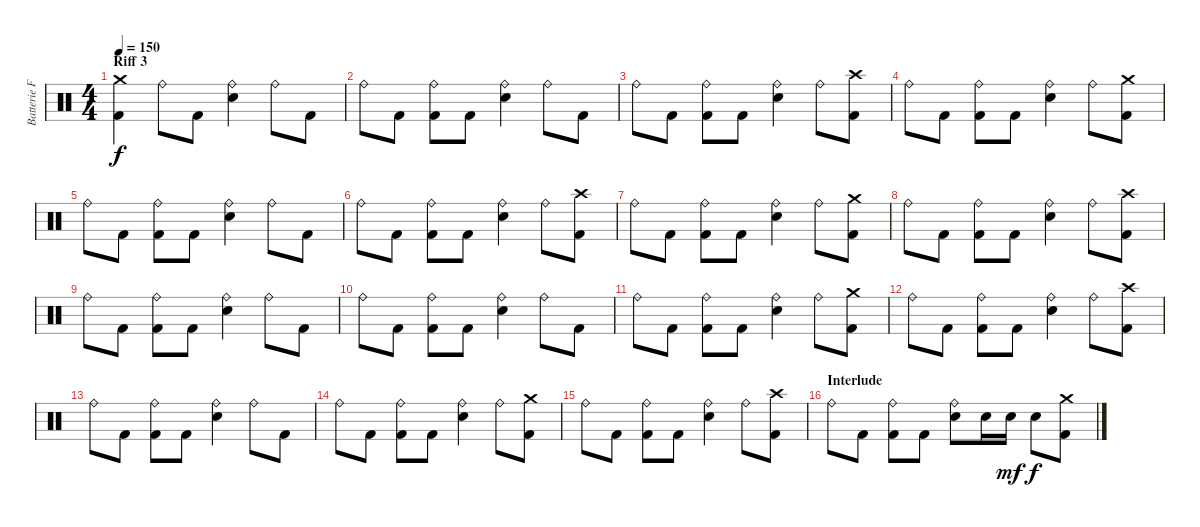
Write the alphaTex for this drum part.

\track ("Batterie Franck" "Batterie F") {instrument percussion}
\staff {score}
\articulation defaults
\ts (4 4)
\section ("" "Riff 3")
\tempo 150
\clef neutral
\ks c
("Crash medium (hit)" "Kick (hit) 2").4{dy f} "Ride (bell)".8 "Kick (hit) 2".8 ("Ride (bell)" "Snare (hit) 2").4 "Ride (bell)".8 "Kick (hit) 2".8 |
"Ride (bell)".8 "Kick (hit) 2".8 ("Ride (bell)" "Kick (hit) 2").8 "Kick (hit) 2".8 ("Ride (bell)" "Snare (hit) 2").4 "Ride (bell)".8 "Kick (hit) 2".8 |
"Ride (bell)".8 "Kick (hit) 2".8 ("Ride (bell)" "Kick (hit) 2").8 "Kick (hit) 2".8 ("Ride (bell)" "Snare (hit) 2").4 "Ride (bell)".8 ("Crash high (hit)" "Kick (hit) 2").8 |
"Ride (bell)".8 "Kick (hit) 2".8 ("Ride (bell)" "Kick (hit) 2").8 "Kick (hit) 2".8 ("Ride (bell)" "Snare (hit) 2").4 "Ride (bell)".8 ("Crash medium (hit)" "Kick (hit) 2").8 |
"Ride (bell)".8 "Kick (hit) 2".8 ("Ride (bell)" "Kick (hit) 2").8 "Kick (hit) 2".8 ("Ride (bell)" "Snare (hit) 2").4 "Ride (bell)".8 "Kick (hit) 2".8 |
"Ride (bell)".8 "Kick (hit) 2".8 ("Ride (bell)" "Kick (hit) 2").8 "Kick (hit) 2".8 ("Ride (bell)" "Snare (hit) 2").4 "Ride (bell)".8 ("Crash high (hit)" "Kick (hit) 2").8 |
"Ride (bell)".8 "Kick (hit) 2".8 ("Ride (bell)" "Kick (hit) 2").8 "Kick (hit) 2".8 ("Ride (bell)" "Snare (hit) 2").4 "Ride (bell)".8 ("Crash medium (hit)" "Kick (hit) 2").8 |
"Ride (bell)".8 "Kick (hit) 2".8 ("Ride (bell)" "Kick (hit) 2").8 "Kick (hit) 2".8 ("Ride (bell)" "Snare (hit) 2").4 "Ride (bell)".8 ("Crash high (hit)" "Kick (hit) 2").8 |
"Ride (bell)".8 "Kick (hit) 2".8 ("Ride (bell)" "Kick (hit) 2").8 "Kick (hit) 2".8 ("Ride (bell)" "Snare (hit) 2").4 "Ride (bell)".8 "Kick (hit) 2".8 |
"Ride (bell)".8 "Kick (hit) 2".8 ("Ride (bell)" "Kick (hit) 2").8 "Kick (hit) 2".8 ("Ride (bell)" "Snare (hit) 2").4 "Ride (bell)".8 "Kick (hit) 2".8 |
"Ride (bell)".8 "Kick (hit) 2".8 ("Ride (bell)" "Kick (hit) 2").8 "Kick (hit) 2".8 ("Ride (bell)" "Snare (hit) 2").4 "Ride (bell)".8 ("Crash medium (hit)" "Kick (hit) 2").8 |
"Ride (bell)".8 "Kick (hit) 2".8 ("Ride (bell)" "Kick (hit) 2").8 "Kick (hit) 2".8 ("Ride (bell)" "Snare (hit) 2").4 "Ride (bell)".8 ("Crash high (hit)" "Kick (hit) 2").8 |
"Ride (bell)".8 "Kick (hit) 2".8 ("Ride (bell)" "Kick (hit) 2").8 "Kick (hit) 2".8 ("Ride (bell)" "Snare (hit) 2").4 "Ride (bell)".8 "Kick (hit) 2".8 |
"Ride (bell)".8 "Kick (hit) 2".8 ("Ride (bell)" "Kick (hit) 2").8 "Kick (hit) 2".8 ("Ride (bell)" "Snare (hit) 2").4 "Ride (bell)".8 ("Crash medium (hit)" "Kick (hit) 2").8 |
"Ride (bell)".8 "Kick (hit) 2".8 ("Ride (bell)" "Kick (hit) 2").8 "Kick (hit) 2".8 ("Ride (bell)" "Snare (hit) 2").4 "Ride (bell)".8 ("Crash high (hit)" "Kick (hit) 2").8 |
\section ("" "Interlude")
"Ride (bell)".8 "Kick (hit) 2".8 ("Ride (bell)" "Kick (hit) 2").8 "Kick (hit) 2".8 ("Ride (bell)" "Snare (hit) 2").8 "Snare (hit) 2".16 "Snare (hit) 2".16{dy mf} "Snare (hit) 2".8{dy f} ("Crash medium (hit)" "Kick (hit) 2").8
